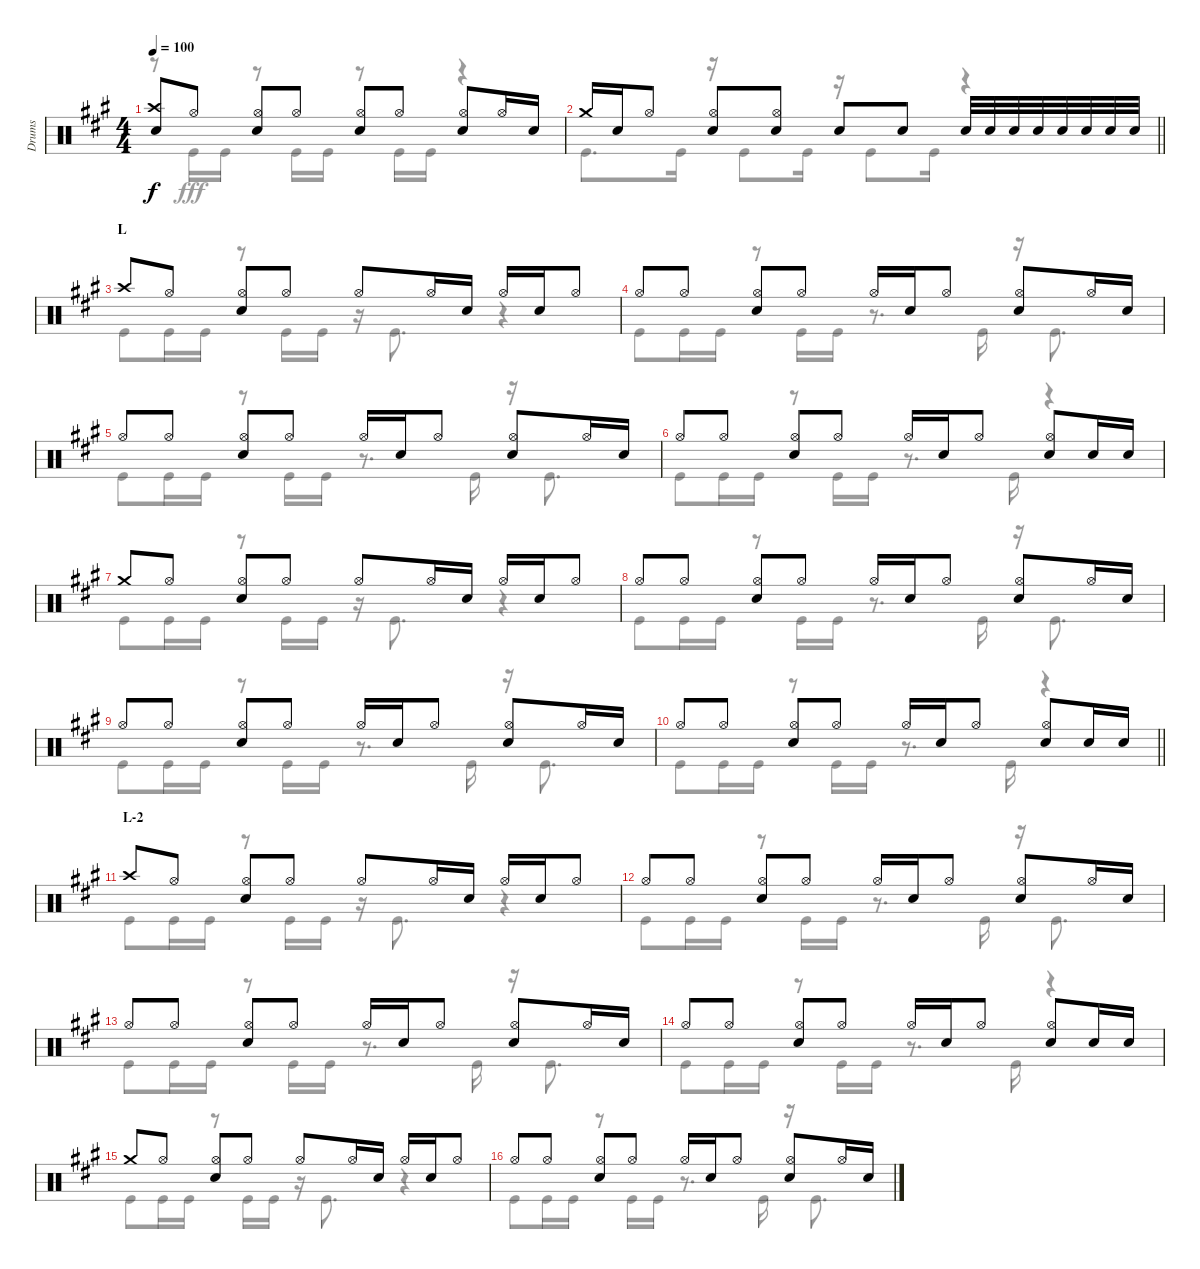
\track ("Drums" "Drums") {instrument percussion}
\staff {score}
\articulation defaults
\voice
\ts (4 4)
\tempo 100
\clef neutral
\ks a
("Crash high (hit)" "Snare (hit) 2").8{dy f} "Hi-Hat (open)".8 ("Hi-Hat (open)" "Snare (hit) 2").8 "Hi-Hat (open)".8 ("Hi-Hat (open)" "Snare (hit) 2").8 "Hi-Hat (open)".8 ("Hi-Hat (open)" "Snare (hit) 2").8 "Hi-Hat (open)".16 "Snare (hit) 2".16 |
\barLineRight lightlight "Crash medium (hit)".16 "Snare (hit) 2".16 "Hi-Hat (open)".8
("Hi-Hat (open)" "Snare (hit) 2").8 ("Hi-Hat (open)" "Snare (hit) 2").8 "Snare (hit) 2".8 "Snare (hit) 2".8 "Snare (hit) 2".32 "Snare (hit) 2".32 "Snare (hit) 2".32 "Snare (hit) 2".32 "Snare (hit) 2".32 "Snare (hit) 2".32 "Snare (hit) 2".32 "Snare (hit) 2".32 |
\section ("" "L")
"Crash high (hit)".8 "Hi-Hat (open)".8 ("Hi-Hat (open)" "Snare (hit) 2").8 "Hi-Hat (open)".8 "Hi-Hat (open)".8 "Hi-Hat (open)".16 "Snare (hit) 2".16 "Hi-Hat (open)".16 "Snare (hit) 2".16 "Hi-Hat (open)".8 |
"Hi-Hat (open)".8 "Hi-Hat (open)".8 ("Hi-Hat (open)" "Snare (hit) 2").8 "Hi-Hat (open)".8 "Hi-Hat (open)".16 "Snare (hit) 2".16 "Hi-Hat (open)".8 ("Hi-Hat (open)" "Snare (hit) 2").8 "Hi-Hat (open)".16 "Snare (hit) 2".16 |
"Hi-Hat (open)".8 "Hi-Hat (open)".8 ("Hi-Hat (open)" "Snare (hit) 2").8 "Hi-Hat (open)".8 "Hi-Hat (open)".16 "Snare (hit) 2".16 "Hi-Hat (open)".8 ("Hi-Hat (open)" "Snare (hit) 2").8 "Hi-Hat (open)".16 "Snare (hit) 2".16 |
"Hi-Hat (open)".8 "Hi-Hat (open)".8 ("Hi-Hat (open)" "Snare (hit) 2").8 "Hi-Hat (open)".8 "Hi-Hat (open)".16 "Snare (hit) 2".16 "Hi-Hat (open)".8 ("Hi-Hat (open)" "Snare (hit) 2").8 "Snare (hit) 2".16 "Snare (hit) 2".16 |
"Crash medium (hit)".8 "Hi-Hat (open)".8 ("Hi-Hat (open)" "Snare (hit) 2").8 "Hi-Hat (open)".8 "Hi-Hat (open)".8 "Hi-Hat (open)".16 "Snare (hit) 2".16 "Hi-Hat (open)".16 "Snare (hit) 2".16 "Hi-Hat (open)".8 |
"Hi-Hat (open)".8 "Hi-Hat (open)".8 ("Hi-Hat (open)" "Snare (hit) 2").8 "Hi-Hat (open)".8 "Hi-Hat (open)".16 "Snare (hit) 2".16 "Hi-Hat (open)".8 ("Hi-Hat (open)" "Snare (hit) 2").8 "Hi-Hat (open)".16 "Snare (hit) 2".16 |
"Hi-Hat (open)".8 "Hi-Hat (open)".8 ("Hi-Hat (open)" "Snare (hit) 2").8 "Hi-Hat (open)".8 "Hi-Hat (open)".16 "Snare (hit) 2".16 "Hi-Hat (open)".8 ("Hi-Hat (open)" "Snare (hit) 2").8 "Hi-Hat (open)".16 "Snare (hit) 2".16 |
\barLineRight lightlight "Hi-Hat (open)".8 "Hi-Hat (open)".8
("Hi-Hat (open)" "Snare (hit) 2").8 "Hi-Hat (open)".8 "Hi-Hat (open)".16 "Snare (hit) 2".16 "Hi-Hat (open)".8 ("Hi-Hat (open)" "Snare (hit) 2").8 "Snare (hit) 2".16 "Snare (hit) 2".16 |
\section ("" "L-2")
"Crash high (hit)".8 "Hi-Hat (open)".8 ("Hi-Hat (open)" "Snare (hit) 2").8 "Hi-Hat (open)".8 "Hi-Hat (open)".8 "Hi-Hat (open)".16 "Snare (hit) 2".16 "Hi-Hat (open)".16 "Snare (hit) 2".16 "Hi-Hat (open)".8 |
"Hi-Hat (open)".8 "Hi-Hat (open)".8 ("Hi-Hat (open)" "Snare (hit) 2").8 "Hi-Hat (open)".8 "Hi-Hat (open)".16 "Snare (hit) 2".16 "Hi-Hat (open)".8 ("Hi-Hat (open)" "Snare (hit) 2").8 "Hi-Hat (open)".16 "Snare (hit) 2".16 |
"Hi-Hat (open)".8 "Hi-Hat (open)".8 ("Hi-Hat (open)" "Snare (hit) 2").8 "Hi-Hat (open)".8 "Hi-Hat (open)".16 "Snare (hit) 2".16 "Hi-Hat (open)".8 ("Hi-Hat (open)" "Snare (hit) 2").8 "Hi-Hat (open)".16 "Snare (hit) 2".16 |
"Hi-Hat (open)".8 "Hi-Hat (open)".8 ("Hi-Hat (open)" "Snare (hit) 2").8 "Hi-Hat (open)".8 "Hi-Hat (open)".16 "Snare (hit) 2".16 "Hi-Hat (open)".8 ("Hi-Hat (open)" "Snare (hit) 2").8 "Snare (hit) 2".16 "Snare (hit) 2".16 |
"Crash medium (hit)".8 "Hi-Hat (open)".8 ("Hi-Hat (open)" "Snare (hit) 2").8 "Hi-Hat (open)".8 "Hi-Hat (open)".8 "Hi-Hat (open)".16 "Snare (hit) 2".16 "Hi-Hat (open)".16 "Snare (hit) 2".16 "Hi-Hat (open)".8 |
"Hi-Hat (open)".8 "Hi-Hat (open)".8 ("Hi-Hat (open)" "Snare (hit) 2").8 "Hi-Hat (open)".8 "Hi-Hat (open)".16 "Snare (hit) 2".16 "Hi-Hat (open)".8 ("Hi-Hat (open)" "Snare (hit) 2").8 "Hi-Hat (open)".16 "Snare (hit) 2".16
\voice
\clef neutral
\ottava regular
\simile none
\ks a
r.8{dy fff} "Kick (hit)".16 "Kick (hit)".16 r.8 "Kick (hit)".16 "Kick (hit)".16 r.8 "Kick (hit)".16 "Kick (hit)".16 r.4 |
\barLineRight lightlight "Kick (hit)".8{d} "Kick (hit)".16
r.16 "Kick (hit)".8 "Kick (hit)".16 r.16 "Kick (hit)".8 "Kick (hit)".16 r.4 |
"Kick (hit)".8 "Kick (hit)".16 "Kick (hit)".16 r.8 "Kick (hit)".16 "Kick (hit)".16 r.16 "Kick (hit)".8{d} r.4 |
"Kick (hit)".8 "Kick (hit)".16 "Kick (hit)".16 r.8 "Kick (hit)".16 "Kick (hit)".16 r.8{d} "Kick (hit)".16 r.16 "Kick (hit)".8{d} |
"Kick (hit)".8 "Kick (hit)".16 "Kick (hit)".16 r.8 "Kick (hit)".16 "Kick (hit)".16 r.8{d} "Kick (hit)".16 r.16 "Kick (hit)".8{d} |
"Kick (hit)".8 "Kick (hit)".16 "Kick (hit)".16 r.8 "Kick (hit)".16 "Kick (hit)".16 r.8{d} "Kick (hit)".16 r.4 |
"Kick (hit)".8 "Kick (hit)".16 "Kick (hit)".16 r.8 "Kick (hit)".16 "Kick (hit)".16 r.16 "Kick (hit)".8{d} r.4 |
"Kick (hit)".8 "Kick (hit)".16 "Kick (hit)".16 r.8 "Kick (hit)".16 "Kick (hit)".16 r.8{d} "Kick (hit)".16 r.16 "Kick (hit)".8{d} |
"Kick (hit)".8 "Kick (hit)".16 "Kick (hit)".16 r.8 "Kick (hit)".16 "Kick (hit)".16 r.8{d} "Kick (hit)".16 r.16 "Kick (hit)".8{d} |
\barLineRight lightlight "Kick (hit)".8 "Kick (hit)".16 "Kick (hit)".16
r.8 "Kick (hit)".16 "Kick (hit)".16 r.8{d} "Kick (hit)".16 r.4 |
"Kick (hit)".8 "Kick (hit)".16 "Kick (hit)".16 r.8 "Kick (hit)".16 "Kick (hit)".16 r.16 "Kick (hit)".8{d} r.4 |
"Kick (hit)".8 "Kick (hit)".16 "Kick (hit)".16 r.8 "Kick (hit)".16 "Kick (hit)".16 r.8{d} "Kick (hit)".16 r.16 "Kick (hit)".8{d} |
"Kick (hit)".8 "Kick (hit)".16 "Kick (hit)".16 r.8 "Kick (hit)".16 "Kick (hit)".16 r.8{d} "Kick (hit)".16 r.16 "Kick (hit)".8{d} |
"Kick (hit)".8 "Kick (hit)".16 "Kick (hit)".16 r.8 "Kick (hit)".16 "Kick (hit)".16 r.8{d} "Kick (hit)".16 r.4 |
"Kick (hit)".8 "Kick (hit)".16 "Kick (hit)".16 r.8 "Kick (hit)".16 "Kick (hit)".16 r.16 "Kick (hit)".8{d} r.4 |
"Kick (hit)".8 "Kick (hit)".16 "Kick (hit)".16 r.8 "Kick (hit)".16 "Kick (hit)".16 r.8{d} "Kick (hit)".16 r.16 "Kick (hit)".8{d}
